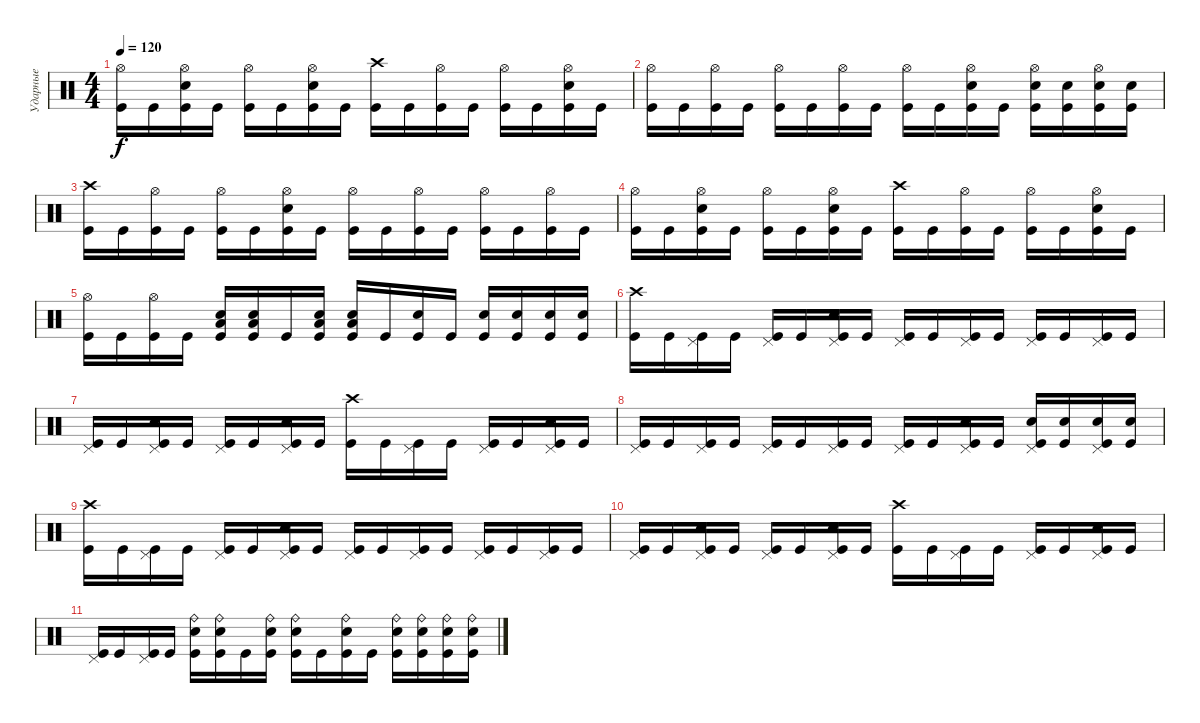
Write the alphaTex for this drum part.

\track ("Ударные" "Ударные") {instrument percussion}
\staff {score}
\articulation defaults
\ts (4 4)
\tempo 120
\clef neutral
\ks c
("Hi-Hat (open)" "Kick (hit)").16{dy f} "Kick (hit)".16 ("Hi-Hat (open)" "Snare (hit) 2" "Kick (hit)").16 "Kick (hit)".16 ("Hi-Hat (open)" "Kick (hit)").16 "Kick (hit)".16 ("Hi-Hat (open)" "Snare (hit) 2" "Kick (hit)").16 "Kick (hit)".16 ("Crash high (hit)" "Kick (hit)").16 "Kick (hit)".16 ("Hi-Hat (open)" "Kick (hit)").16 "Kick (hit)".16 ("Hi-Hat (open)" "Kick (hit)").16 "Kick (hit)".16 ("Hi-Hat (open)" "Snare (hit) 2" "Kick (hit)").16 "Kick (hit)".16 |
("Hi-Hat (open)" "Kick (hit)").16 "Kick (hit)".16 ("Hi-Hat (open)" "Kick (hit)").16 "Kick (hit)".16 ("Hi-Hat (open)" "Kick (hit)").16 "Kick (hit)".16 ("Hi-Hat (open)" "Kick (hit)").16 "Kick (hit)".16 ("Hi-Hat (open)" "Kick (hit)").16 "Kick (hit)".16 ("Hi-Hat (open)" "Snare (hit) 2" "Kick (hit)").16 "Kick (hit)".16 ("Hi-Hat (open)" "Snare (hit) 2" "Kick (hit)").16 ("Snare (hit) 2" "Kick (hit)").16 ("Hi-Hat (open)" "Snare (hit) 2" "Kick (hit)").16 ("Snare (hit) 2" "Kick (hit)").16 |
("Crash high (hit)" "Kick (hit)").16 "Kick (hit)".16 ("Hi-Hat (open)" "Kick (hit)").16 "Kick (hit)".16 ("Hi-Hat (open)" "Kick (hit)").16 "Kick (hit)".16 ("Hi-Hat (open)" "Snare (hit) 2" "Kick (hit)").16 "Kick (hit)".16 ("Hi-Hat (open)" "Kick (hit)").16 "Kick (hit)".16 ("Hi-Hat (open)" "Kick (hit)").16 "Kick (hit)".16 ("Hi-Hat (open)" "Kick (hit)").16 "Kick (hit)".16 ("Hi-Hat (open)" "Kick (hit)").16 "Kick (hit)".16 |
("Hi-Hat (open)" "Kick (hit)").16 "Kick (hit)".16 ("Hi-Hat (open)" "Snare (hit) 2" "Kick (hit)").16 "Kick (hit)".16 ("Hi-Hat (open)" "Kick (hit)").16 "Kick (hit)".16 ("Hi-Hat (open)" "Snare (hit) 2" "Kick (hit)").16 "Kick (hit)".16 ("Crash high (hit)" "Kick (hit)").16 "Kick (hit)".16 ("Hi-Hat (open)" "Kick (hit)").16 "Kick (hit)".16 ("Hi-Hat (open)" "Kick (hit)").16 "Kick (hit)".16 ("Hi-Hat (open)" "Snare (hit) 2" "Kick (hit)").16 "Kick (hit)".16 |
("Hi-Hat (open)" "Kick (hit)").16 "Kick (hit)".16 ("Hi-Hat (open)" "Kick (hit)").16 "Kick (hit)".16 ("Low Tom (hit)" "Snare (hit) 2" "Kick (hit)").16 ("Low Tom (hit)" "Snare (hit) 2" "Kick (hit)").16 "Kick (hit)".16 ("Low Tom (hit)" "Snare (hit) 2" "Kick (hit)").16 ("Low Tom (hit)" "Snare (hit) 2" "Kick (hit)").16 "Kick (hit)".16 ("Snare (hit) 2" "Kick (hit)").16 "Kick (hit)".16 ("Snare (hit) 2" "Kick (hit)").16 ("Snare (hit) 2" "Kick (hit)").16 ("Snare (hit) 2" "Kick (hit)").16 ("Snare (hit) 2" "Kick (hit)").16 |
("Crash high (hit)" "Kick (hit)").16 "Kick (hit)".16 ("Pedal Hi-Hat (hit)" "Kick (hit)").16 "Kick (hit)".16 ("Pedal Hi-Hat (hit)" "Kick (hit)").16 "Kick (hit)".16 ("Pedal Hi-Hat (hit)" "Snare (hit) 2" "Kick (hit)").16 "Kick (hit)".16 ("Pedal Hi-Hat (hit)" "Kick (hit)").16 "Kick (hit)".16 ("Pedal Hi-Hat (hit)" "Kick (hit)").16 "Kick (hit)".16 ("Pedal Hi-Hat (hit)" "Kick (hit)").16 "Kick (hit)".16 ("Pedal Hi-Hat (hit)" "Kick (hit)").16 "Kick (hit)".16 |
("Pedal Hi-Hat (hit)" "Kick (hit)").16 "Kick (hit)".16 ("Pedal Hi-Hat (hit)" "Snare (hit) 2" "Kick (hit)").16 "Kick (hit)".16 ("Pedal Hi-Hat (hit)" "Kick (hit)").16 "Kick (hit)".16 ("Pedal Hi-Hat (hit)" "Snare (hit) 2" "Kick (hit)").16 "Kick (hit)".16 ("Crash high (hit)" "Kick (hit)").16 "Kick (hit)".16 ("Pedal Hi-Hat (hit)" "Kick (hit)").16 "Kick (hit)".16 ("Pedal Hi-Hat (hit)" "Kick (hit)").16 "Kick (hit)".16 ("Pedal Hi-Hat (hit)" "Snare (hit) 2" "Kick (hit)").16 "Kick (hit)".16 |
("Pedal Hi-Hat (hit)" "Kick (hit)").16 "Kick (hit)".16 ("Pedal Hi-Hat (hit)" "Kick (hit)").16 "Kick (hit)".16 ("Pedal Hi-Hat (hit)" "Kick (hit)").16 "Kick (hit)".16 ("Pedal Hi-Hat (hit)" "Kick (hit)").16 "Kick (hit)".16 ("Pedal Hi-Hat (hit)" "Kick (hit)").16 "Kick (hit)".16 ("Pedal Hi-Hat (hit)" "Snare (hit) 2" "Kick (hit)").16 "Kick (hit)".16 ("Pedal Hi-Hat (hit)" "Snare (hit) 2" "Kick (hit)").16 ("Snare (hit) 2" "Kick (hit)").16 ("Pedal Hi-Hat (hit)" "Snare (hit) 2" "Kick (hit)").16 ("Snare (hit) 2" "Kick (hit)").16 |
("Crash high (hit)" "Kick (hit)").16 "Kick (hit)".16 ("Pedal Hi-Hat (hit)" "Kick (hit)").16 "Kick (hit)".16 ("Pedal Hi-Hat (hit)" "Kick (hit)").16 "Kick (hit)".16 ("Pedal Hi-Hat (hit)" "Snare (hit) 2" "Kick (hit)").16 "Kick (hit)".16 ("Pedal Hi-Hat (hit)" "Kick (hit)").16 "Kick (hit)".16 ("Pedal Hi-Hat (hit)" "Kick (hit)").16 "Kick (hit)".16 ("Pedal Hi-Hat (hit)" "Kick (hit)").16 "Kick (hit)".16 ("Pedal Hi-Hat (hit)" "Kick (hit)").16 "Kick (hit)".16 |
("Pedal Hi-Hat (hit)" "Kick (hit)").16 "Kick (hit)".16 ("Pedal Hi-Hat (hit)" "Snare (hit) 2" "Kick (hit)").16 "Kick (hit)".16 ("Pedal Hi-Hat (hit)" "Kick (hit)").16 "Kick (hit)".16 ("Pedal Hi-Hat (hit)" "Snare (hit) 2" "Kick (hit)").16 "Kick (hit)".16 ("Crash high (hit)" "Kick (hit)").16 "Kick (hit)".16 ("Pedal Hi-Hat (hit)" "Kick (hit)").16 "Kick (hit)".16 ("Pedal Hi-Hat (hit)" "Kick (hit)").16 "Kick (hit)".16 ("Pedal Hi-Hat (hit)" "Snare (hit) 2" "Kick (hit)").16 "Kick (hit)".16 |
("Pedal Hi-Hat (hit)" "Kick (hit)").16 "Kick (hit)".16 ("Pedal Hi-Hat (hit)" "Kick (hit)").16 "Kick (hit)".16 ("Ride (bell)" "Snare (hit) 2" "Kick (hit)").16 ("Ride (bell)" "Snare (hit) 2" "Kick (hit)").16 "Kick (hit)".16 ("Ride (bell)" "Snare (hit) 2" "Kick (hit)").16 ("Ride (bell)" "Snare (hit) 2" "Kick (hit)").16 "Kick (hit)".16 ("Ride (bell)" "Snare (hit) 2" "Kick (hit)").16 "Kick (hit)".16 ("Ride (bell)" "Snare (hit) 2" "Kick (hit)").16 ("Ride (bell)" "Snare (hit) 2" "Kick (hit)").16 ("Ride (bell)" "Snare (hit) 2" "Kick (hit)").16 ("Ride (bell)" "Snare (hit) 2" "Kick (hit)").16
